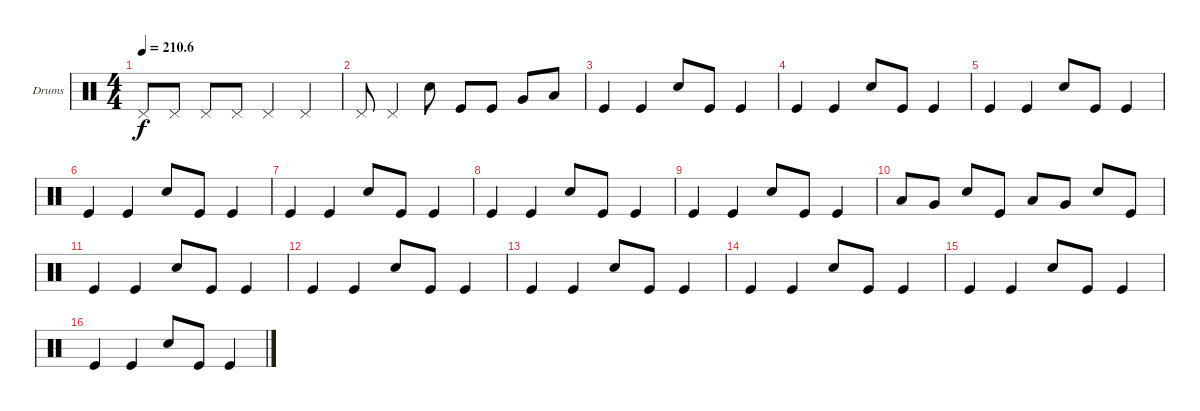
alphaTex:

\defaultSystemsLayout 4
\bracketExtendMode groupsimilarinstruments
\firstSystemTrackNameOrientation horizontal
\otherSystemsTrackNameOrientation horizontal
\track ("Drumkit" "Drums") {instrument percussion}
\staff {score}
\articulation defaults
\ts (4 4)
\tempo
210.6
\accidentals auto
\clef neutral
\ottava regular
\simile none
\ks c "Pedal Hi-Hat (hit)".8{dy f} "Pedal Hi-Hat (hit)".8 "Pedal Hi-Hat (hit)".8 "Pedal Hi-Hat (hit)".8 "Pedal Hi-Hat (hit)".4 "Pedal Hi-Hat (hit)".4
|
"Pedal Hi-Hat (hit)".8 "Pedal Hi-Hat (hit)".4 "Snare (hit) 2".8 "Kick (hit)".8 "Kick (hit)".8 "Very Low Tom (hit)".8 "Low Tom (hit)".8 |
"Kick (hit)".4 "Kick (hit)".4 "Snare (hit) 2".8 "Kick (hit)".8 "Kick (hit)".4 |
"Kick (hit)".4 "Kick (hit)".4 "Snare (hit) 2".8 "Kick (hit)".8 "Kick (hit)".4 |
"Kick (hit)".4 "Kick (hit)".4 "Snare (hit) 2".8 "Kick (hit)".8 "Kick (hit)".4 |
"Kick (hit)".4 "Kick (hit)".4 "Snare (hit) 2".8 "Kick (hit)".8 "Kick (hit)".4 |
"Kick (hit)".4 "Kick (hit)".4 "Snare (hit) 2".8 "Kick (hit)".8 "Kick (hit)".4 |
"Kick (hit)".4 "Kick (hit)".4 "Snare (hit) 2".8 "Kick (hit)".8 "Kick (hit)".4 |
"Kick (hit)".4 "Kick (hit)".4 "Snare (hit) 2".8 "Kick (hit)".8 "Kick (hit)".4 |
"Low Tom (hit)".8 "Very Low Tom (hit)".8 "Snare (hit) 2".8 "Kick (hit)".8 "Low Tom (hit)".8 "Very Low Tom (hit)".8 "Snare (hit) 2".8 "Kick (hit)".8 |
"Kick (hit)".4 "Kick (hit)".4 "Snare (hit) 2".8 "Kick (hit)".8 "Kick (hit)".4 |
"Kick (hit)".4 "Kick (hit)".4 "Snare (hit) 2".8 "Kick (hit)".8 "Kick (hit)".4 |
"Kick (hit)".4 "Kick (hit)".4 "Snare (hit) 2".8 "Kick (hit)".8 "Kick (hit)".4 |
"Kick (hit)".4 "Kick (hit)".4 "Snare (hit) 2".8 "Kick (hit)".8 "Kick (hit)".4 |
"Kick (hit)".4 "Kick (hit)".4 "Snare (hit) 2".8 "Kick (hit)".8 "Kick (hit)".4 |
"Kick (hit)".4 "Kick (hit)".4 "Snare (hit) 2".8 "Kick (hit)".8 "Kick (hit)".4
